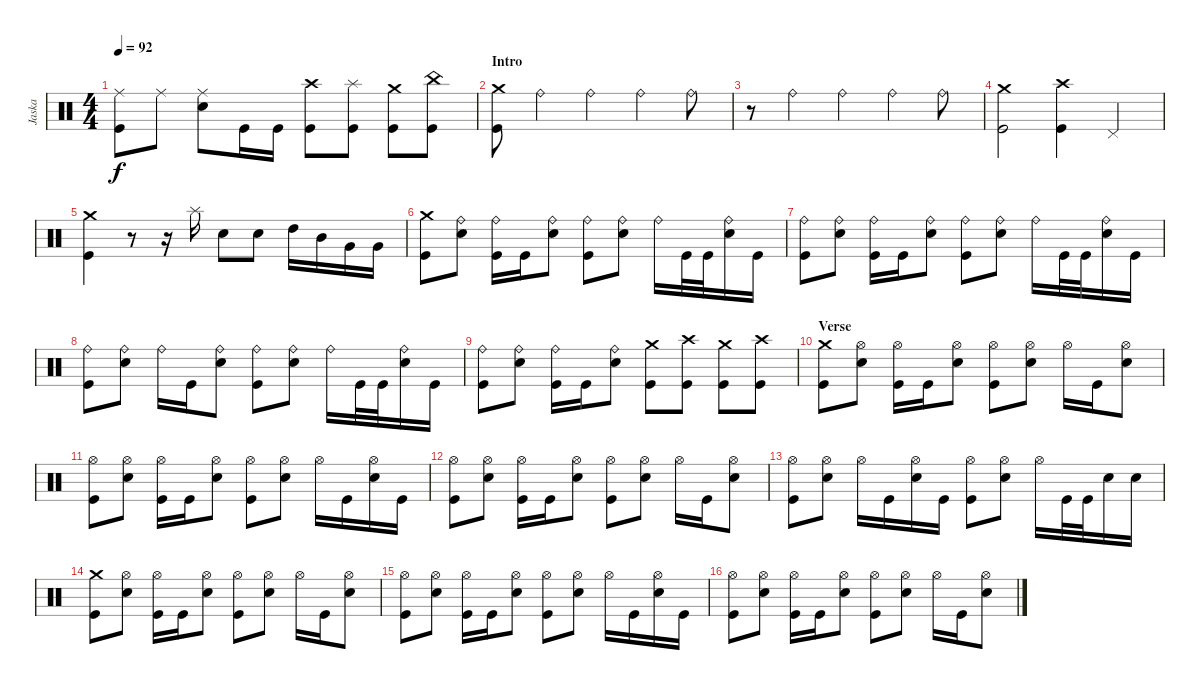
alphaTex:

\track ("Jaska" "Jaska") {instrument percussion}
\staff {score}
\articulation defaults
\ts (4 4)
\tempo 92
\clef neutral
\ks c
("Ride (middle)" "Kick (hit)").8{dy f} "Ride (middle)".8 ("Ride (middle)" "Electric Snare (hit)").8 "Kick (hit)".16 "Kick (hit)".16 ("Crash high (hit)" "Kick (hit)").8 ("Splash (hit)" "Kick (hit)").8 ("Crash medium (hit)" "Kick (hit)").8 ("China (hit)" "Kick (hit)").8 |
\section ("" "Intro")
("Crash medium (hit)" "Kick (hit)").8 "Ride (bell)".4 "Ride (bell)".4 "Ride (bell)".4 "Ride (bell)".8 |
r.8 "Ride (bell)".4 "Ride (bell)".4 "Ride (bell)".4 "Ride (bell)".8 |
("Crash medium (hit)" "Kick (hit)").2 ("Crash high (hit)" "Kick (hit)").4 "Pedal Hi-Hat (hit)".4 |
("Crash medium (hit)" "Kick (hit)").4 r.8 r.16 "Splash (hit)".16 "Electric Snare (hit)".8 "Electric Snare (hit)".8 "High Tom (hit)".16 "Mid Tom (hit)".16 "Very Low Tom (hit)".16 "Very Low Tom (hit)".16 |
("Crash medium (hit)" "Kick (hit)").8 ("Ride (bell)" "Electric Snare (hit)").8 ("Ride (bell)" "Kick (hit)").16 "Kick (hit)".16 ("Ride (bell)" "Electric Snare (hit)").8 ("Ride (bell)" "Kick (hit)").8 ("Ride (bell)" "Electric Snare (hit)").8 "Ride (bell)".16 "Kick (hit)".32 "Kick (hit)".32 ("Ride (bell)" "Electric Snare (hit)").16 "Kick (hit)".16 |
("Ride (bell)" "Kick (hit)").8 ("Ride (bell)" "Electric Snare (hit)").8 ("Ride (bell)" "Kick (hit)").16 "Kick (hit)".16 ("Ride (bell)" "Electric Snare (hit)").8 ("Ride (bell)" "Kick (hit)").8 ("Ride (bell)" "Electric Snare (hit)").8 "Ride (bell)".16 "Kick (hit)".32 "Kick (hit)".32 ("Ride (bell)" "Electric Snare (hit)").16 "Kick (hit)".16 |
("Ride (bell)" "Kick (hit)").8 ("Ride (bell)" "Electric Snare (hit)").8 "Ride (bell)".16 "Kick (hit)".16 ("Ride (bell)" "Electric Snare (hit)").8 ("Ride (bell)" "Kick (hit)").8 ("Ride (bell)" "Electric Snare (hit)").8 "Ride (bell)".16 "Kick (hit)".32 "Kick (hit)".32 ("Ride (bell)" "Electric Snare (hit)").16 "Kick (hit)".16 |
("Ride (bell)" "Kick (hit)").8 ("Ride (bell)" "Electric Snare (hit)").8 ("Ride (bell)" "Kick (hit)").16 "Kick (hit)".16 ("Ride (bell)" "Electric Snare (hit)").8 ("Crash medium (hit)" "Kick (hit)").8 ("Crash high (hit)" "Kick (hit)").8 ("Crash medium (hit)" "Kick (hit)").8 ("Crash high (hit)" "Kick (hit)").8 |
\section ("" "Verse")
("Crash medium (hit)" "Kick (hit)").8 ("Hi-Hat (open)" "Electric Snare (hit)").8 ("Hi-Hat (open)" "Kick (hit)").16 "Kick (hit)".16 ("Hi-Hat (open)" "Electric Snare (hit)").8 ("Hi-Hat (open)" "Kick (hit)").8 ("Hi-Hat (open)" "Electric Snare (hit)").8 "Hi-Hat (open)".16 "Kick (hit)".16 ("Hi-Hat (open)" "Electric Snare (hit)").8 |
("Hi-Hat (open)" "Kick (hit)").8 ("Hi-Hat (open)" "Electric Snare (hit)").8 ("Hi-Hat (open)" "Kick (hit)").16 "Kick (hit)".16 ("Hi-Hat (open)" "Electric Snare (hit)").8 ("Hi-Hat (open)" "Kick (hit)").8 ("Hi-Hat (open)" "Electric Snare (hit)").8 "Hi-Hat (open)".16 "Kick (hit)".16 ("Hi-Hat (open)" "Electric Snare (hit)").16 "Kick (hit)".16 |
("Hi-Hat (open)" "Kick (hit)").8 ("Hi-Hat (open)" "Electric Snare (hit)").8 ("Hi-Hat (open)" "Kick (hit)").16 "Kick (hit)".16 ("Hi-Hat (open)" "Electric Snare (hit)").8 ("Hi-Hat (open)" "Kick (hit)").8 ("Hi-Hat (open)" "Electric Snare (hit)").8 "Hi-Hat (open)".16 "Kick (hit)".16 ("Hi-Hat (open)" "Electric Snare (hit)").8 |
("Hi-Hat (open)" "Kick (hit)").8 ("Hi-Hat (open)" "Electric Snare (hit)").8 "Hi-Hat (open)".16 "Kick (hit)".16 ("Hi-Hat (open)" "Electric Snare (hit)").16 "Kick (hit)".16 ("Hi-Hat (open)" "Kick (hit)").8 ("Hi-Hat (open)" "Electric Snare (hit)").8 "Hi-Hat (open)".16 "Kick (hit)".32 "Kick (hit)".32 "Electric Snare (hit)".16 "Electric Snare (hit)".16 |
("Crash medium (hit)" "Kick (hit)").8 ("Hi-Hat (open)" "Electric Snare (hit)").8 ("Hi-Hat (open)" "Kick (hit)").16 "Kick (hit)".16 ("Hi-Hat (open)" "Electric Snare (hit)").8 ("Hi-Hat (open)" "Kick (hit)").8 ("Hi-Hat (open)" "Electric Snare (hit)").8 "Hi-Hat (open)".16 "Kick (hit)".16 ("Hi-Hat (open)" "Electric Snare (hit)").8 |
("Hi-Hat (open)" "Kick (hit)").8 ("Hi-Hat (open)" "Electric Snare (hit)").8 ("Hi-Hat (open)" "Kick (hit)").16 "Kick (hit)".16 ("Hi-Hat (open)" "Electric Snare (hit)").8 ("Hi-Hat (open)" "Kick (hit)").8 ("Hi-Hat (open)" "Electric Snare (hit)").8 "Hi-Hat (open)".16 "Kick (hit)".16 ("Hi-Hat (open)" "Electric Snare (hit)").16 "Kick (hit)".16 |
("Hi-Hat (open)" "Kick (hit)").8 ("Hi-Hat (open)" "Electric Snare (hit)").8 ("Hi-Hat (open)" "Kick (hit)").16 "Kick (hit)".16 ("Hi-Hat (open)" "Electric Snare (hit)").8 ("Hi-Hat (open)" "Kick (hit)").8 ("Hi-Hat (open)" "Electric Snare (hit)").8 "Hi-Hat (open)".16 "Kick (hit)".16 ("Hi-Hat (open)" "Electric Snare (hit)").8
